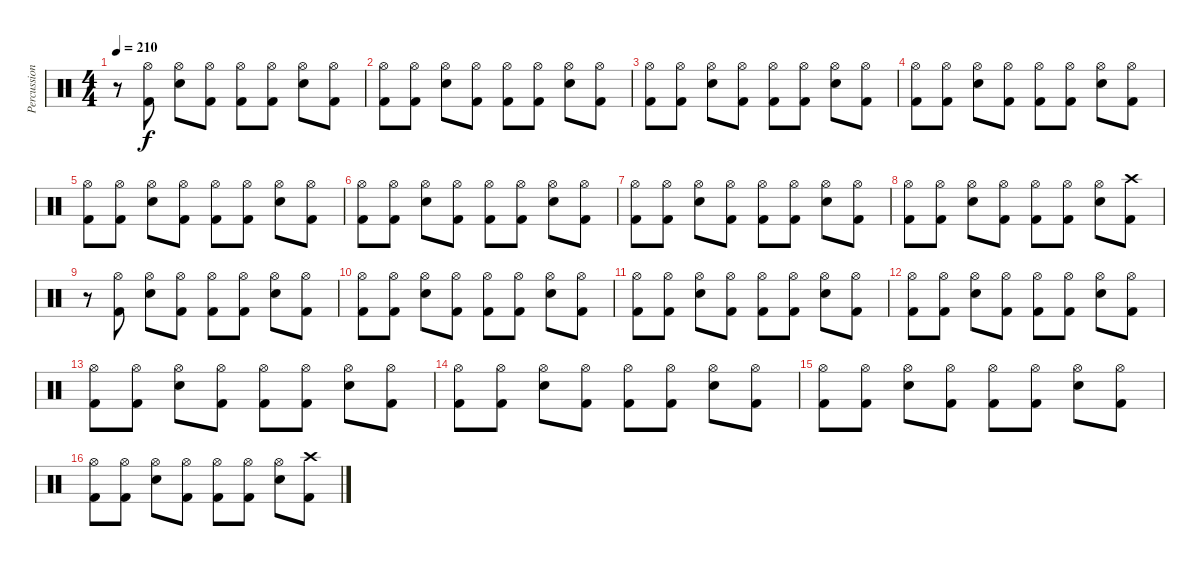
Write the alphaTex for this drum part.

\track ("Percussion" "Percussion") {instrument percussion}
\staff {score}
\articulation defaults
\ts (4 4)
\tempo 210
\clef neutral
\ks c
r.8{dy f} ("Hi-Hat (open)" "Kick (hit) 2").8 ("Hi-Hat (open)" "Electric Snare (hit)").8 ("Hi-Hat (open)" "Kick (hit) 2").8 ("Hi-Hat (open)" "Kick (hit) 2").8 ("Hi-Hat (open)" "Kick (hit) 2").8 ("Hi-Hat (open)" "Electric Snare (hit)").8 ("Hi-Hat (open)" "Kick (hit) 2").8 |
("Hi-Hat (open)" "Kick (hit) 2").8 ("Hi-Hat (open)" "Kick (hit) 2").8 ("Hi-Hat (open)" "Electric Snare (hit)").8 ("Hi-Hat (open)" "Kick (hit) 2").8 ("Hi-Hat (open)" "Kick (hit) 2").8 ("Hi-Hat (open)" "Kick (hit) 2").8 ("Hi-Hat (open)" "Electric Snare (hit)").8 ("Hi-Hat (open)" "Kick (hit) 2").8 |
("Hi-Hat (open)" "Kick (hit) 2").8 ("Hi-Hat (open)" "Kick (hit) 2").8 ("Hi-Hat (open)" "Electric Snare (hit)").8 ("Hi-Hat (open)" "Kick (hit) 2").8 ("Hi-Hat (open)" "Kick (hit) 2").8 ("Hi-Hat (open)" "Kick (hit) 2").8 ("Hi-Hat (open)" "Electric Snare (hit)").8 ("Hi-Hat (open)" "Kick (hit) 2").8 |
("Hi-Hat (open)" "Kick (hit) 2").8 ("Hi-Hat (open)" "Kick (hit) 2").8 ("Hi-Hat (open)" "Electric Snare (hit)").8 ("Hi-Hat (open)" "Kick (hit) 2").8 ("Hi-Hat (open)" "Kick (hit) 2").8 ("Hi-Hat (open)" "Kick (hit) 2").8 ("Hi-Hat (open)" "Electric Snare (hit)").8 ("Hi-Hat (open)" "Kick (hit) 2").8 |
("Hi-Hat (open)" "Kick (hit) 2").8 ("Hi-Hat (open)" "Kick (hit) 2").8 ("Hi-Hat (open)" "Electric Snare (hit)").8 ("Hi-Hat (open)" "Kick (hit) 2").8 ("Hi-Hat (open)" "Kick (hit) 2").8 ("Hi-Hat (open)" "Kick (hit) 2").8 ("Hi-Hat (open)" "Electric Snare (hit)").8 ("Hi-Hat (open)" "Kick (hit) 2").8 |
("Hi-Hat (open)" "Kick (hit) 2").8 ("Hi-Hat (open)" "Kick (hit) 2").8 ("Hi-Hat (open)" "Electric Snare (hit)").8 ("Hi-Hat (open)" "Kick (hit) 2").8 ("Hi-Hat (open)" "Kick (hit) 2").8 ("Hi-Hat (open)" "Kick (hit) 2").8 ("Hi-Hat (open)" "Electric Snare (hit)").8 ("Hi-Hat (open)" "Kick (hit) 2").8 |
("Hi-Hat (open)" "Kick (hit) 2").8 ("Hi-Hat (open)" "Kick (hit) 2").8 ("Hi-Hat (open)" "Electric Snare (hit)").8 ("Hi-Hat (open)" "Kick (hit) 2").8 ("Hi-Hat (open)" "Kick (hit) 2").8 ("Hi-Hat (open)" "Kick (hit) 2").8 ("Hi-Hat (open)" "Electric Snare (hit)").8 ("Hi-Hat (open)" "Kick (hit) 2").8 |
("Hi-Hat (open)" "Kick (hit) 2").8 ("Hi-Hat (open)" "Kick (hit) 2").8 ("Hi-Hat (open)" "Electric Snare (hit)").8 ("Hi-Hat (open)" "Kick (hit) 2").8 ("Hi-Hat (open)" "Kick (hit) 2").8 ("Hi-Hat (open)" "Kick (hit) 2").8 ("Hi-Hat (open)" "Electric Snare (hit)").8 ("Crash high (hit)" "Kick (hit) 2").8 |
r.8 ("Hi-Hat (open)" "Kick (hit) 2").8 ("Hi-Hat (open)" "Electric Snare (hit)").8 ("Hi-Hat (open)" "Kick (hit) 2").8 ("Hi-Hat (open)" "Kick (hit) 2").8 ("Hi-Hat (open)" "Kick (hit) 2").8 ("Hi-Hat (open)" "Electric Snare (hit)").8 ("Hi-Hat (open)" "Kick (hit) 2").8 |
("Hi-Hat (open)" "Kick (hit) 2").8 ("Hi-Hat (open)" "Kick (hit) 2").8 ("Hi-Hat (open)" "Electric Snare (hit)").8 ("Hi-Hat (open)" "Kick (hit) 2").8 ("Hi-Hat (open)" "Kick (hit) 2").8 ("Hi-Hat (open)" "Kick (hit) 2").8 ("Hi-Hat (open)" "Electric Snare (hit)").8 ("Hi-Hat (open)" "Kick (hit) 2").8 |
("Hi-Hat (open)" "Kick (hit) 2").8 ("Hi-Hat (open)" "Kick (hit) 2").8 ("Hi-Hat (open)" "Electric Snare (hit)").8 ("Hi-Hat (open)" "Kick (hit) 2").8 ("Hi-Hat (open)" "Kick (hit) 2").8 ("Hi-Hat (open)" "Kick (hit) 2").8 ("Hi-Hat (open)" "Electric Snare (hit)").8 ("Hi-Hat (open)" "Kick (hit) 2").8 |
("Hi-Hat (open)" "Kick (hit) 2").8 ("Hi-Hat (open)" "Kick (hit) 2").8 ("Hi-Hat (open)" "Electric Snare (hit)").8 ("Hi-Hat (open)" "Kick (hit) 2").8 ("Hi-Hat (open)" "Kick (hit) 2").8 ("Hi-Hat (open)" "Kick (hit) 2").8 ("Hi-Hat (open)" "Electric Snare (hit)").8 ("Hi-Hat (open)" "Kick (hit) 2").8 |
("Hi-Hat (open)" "Kick (hit) 2").8 ("Hi-Hat (open)" "Kick (hit) 2").8 ("Hi-Hat (open)" "Electric Snare (hit)").8 ("Hi-Hat (open)" "Kick (hit) 2").8 ("Hi-Hat (open)" "Kick (hit) 2").8 ("Hi-Hat (open)" "Kick (hit) 2").8 ("Hi-Hat (open)" "Electric Snare (hit)").8 ("Hi-Hat (open)" "Kick (hit) 2").8 |
("Hi-Hat (open)" "Kick (hit) 2").8 ("Hi-Hat (open)" "Kick (hit) 2").8 ("Hi-Hat (open)" "Electric Snare (hit)").8 ("Hi-Hat (open)" "Kick (hit) 2").8 ("Hi-Hat (open)" "Kick (hit) 2").8 ("Hi-Hat (open)" "Kick (hit) 2").8 ("Hi-Hat (open)" "Electric Snare (hit)").8 ("Hi-Hat (open)" "Kick (hit) 2").8 |
("Hi-Hat (open)" "Kick (hit) 2").8 ("Hi-Hat (open)" "Kick (hit) 2").8 ("Hi-Hat (open)" "Electric Snare (hit)").8 ("Hi-Hat (open)" "Kick (hit) 2").8 ("Hi-Hat (open)" "Kick (hit) 2").8 ("Hi-Hat (open)" "Kick (hit) 2").8 ("Hi-Hat (open)" "Electric Snare (hit)").8 ("Hi-Hat (open)" "Kick (hit) 2").8 |
("Hi-Hat (open)" "Kick (hit) 2").8 ("Hi-Hat (open)" "Kick (hit) 2").8 ("Hi-Hat (open)" "Electric Snare (hit)").8 ("Hi-Hat (open)" "Kick (hit) 2").8 ("Hi-Hat (open)" "Kick (hit) 2").8 ("Hi-Hat (open)" "Kick (hit) 2").8 ("Hi-Hat (open)" "Electric Snare (hit)").8 ("Crash high (hit)" "Kick (hit) 2").8
